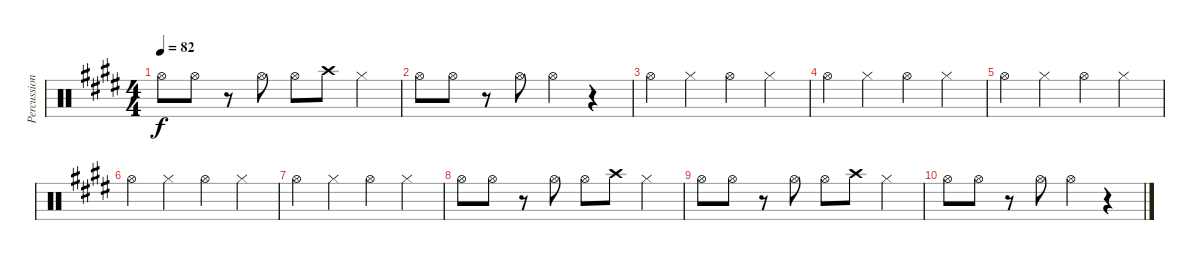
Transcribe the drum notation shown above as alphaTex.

\track ("Percussion" "Percussion") {instrument percussion}
\staff {score}
\articulation defaults
\ts (4 4)
\tempo 82
\clef neutral
\ks e "Hi-Hat (open)".8{dy f} "Hi-Hat (open)".8
r.8 "Hi-Hat (open)".8 "Hi-Hat (open)".8 "Crash high (hit)".8 "Hi-Hat (closed)".4 |
"Hi-Hat (open)".8 "Hi-Hat (open)".8 r.8 "Hi-Hat (open)".8 "Hi-Hat (open)".4 r.4 |
"Hi-Hat (open)".4 "Hi-Hat (closed)".4 "Hi-Hat (open)".4 "Hi-Hat (closed)".4 |
"Hi-Hat (open)".4 "Hi-Hat (closed)".4 "Hi-Hat (open)".4 "Hi-Hat (closed)".4 |
"Hi-Hat (open)".4 "Hi-Hat (closed)".4 "Hi-Hat (open)".4 "Hi-Hat (closed)".4 |
"Hi-Hat (open)".4 "Hi-Hat (closed)".4 "Hi-Hat (open)".4 "Hi-Hat (closed)".4 |
"Hi-Hat (open)".4 "Hi-Hat (closed)".4 "Hi-Hat (open)".4 "Hi-Hat (closed)".4 |
"Hi-Hat (open)".8 "Hi-Hat (open)".8 r.8 "Hi-Hat (open)".8 "Hi-Hat (open)".8 "Crash high (hit)".8 "Hi-Hat (closed)".4 |
"Hi-Hat (open)".8 "Hi-Hat (open)".8 r.8 "Hi-Hat (open)".8 "Hi-Hat (open)".8 "Crash high (hit)".8 "Hi-Hat (closed)".4 |
"Hi-Hat (open)".8 "Hi-Hat (open)".8 r.8 "Hi-Hat (open)".8 "Hi-Hat (open)".4 r.4
